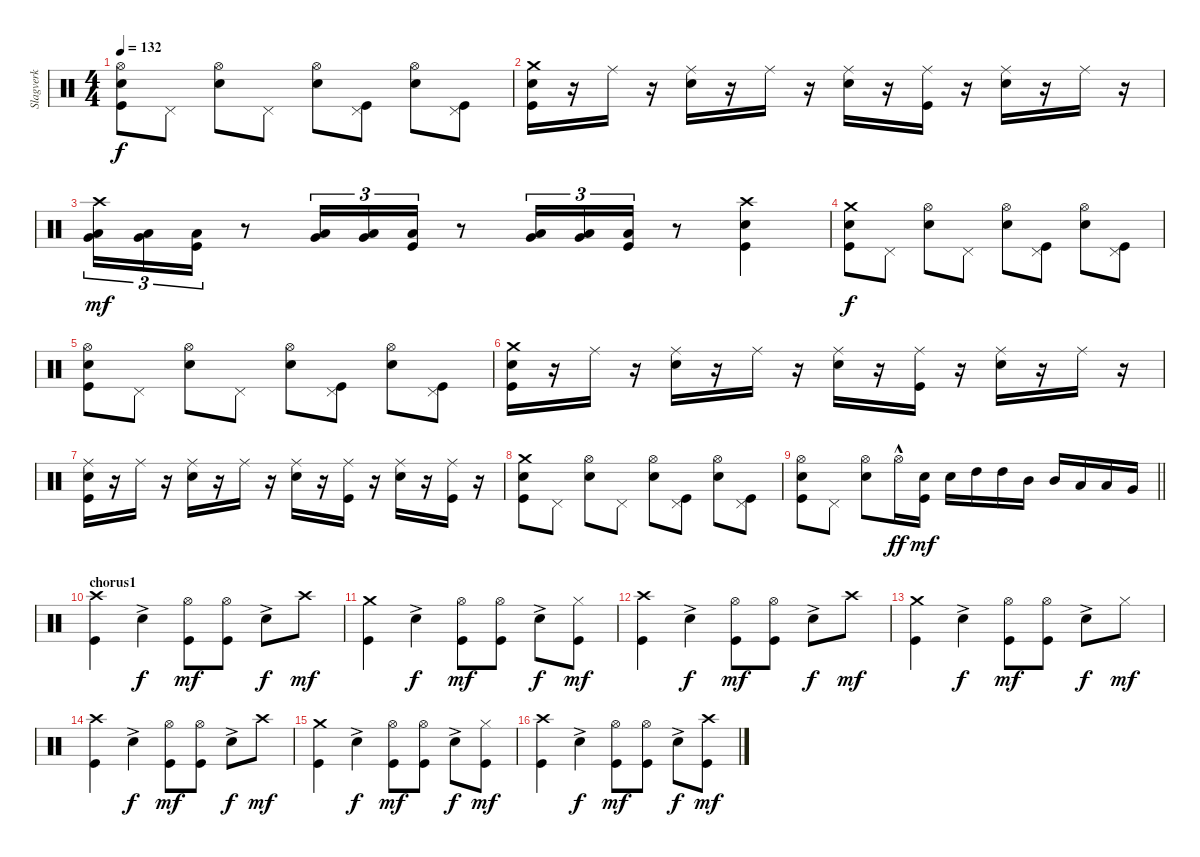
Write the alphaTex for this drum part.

\track ("Slagverk" "Slagverk") {instrument percussion}
\staff
\articulation defaults
\ts (4 4)
\tempo 132
\clef neutral
\ks c
("Hi-Hat (open)" "Snare (hit) 2" "Kick (hit)").8{dy f} "Pedal Hi-Hat (hit)".8 ("Hi-Hat (open)" "Snare (hit) 2").8 "Pedal Hi-Hat (hit)".8 ("Hi-Hat (open)" "Snare (hit) 2").8 ("Pedal Hi-Hat (hit)" "Kick (hit)").8 ("Hi-Hat (open)" "Snare (hit) 2").8 ("Pedal Hi-Hat (hit)" "Kick (hit)").8 |
("Crash medium (hit)" "Snare (hit) 2" "Kick (hit)").16 r.16 "Ride (middle)".16 r.16 ("Ride (middle)" "Snare (hit) 2").16 r.16 "Ride (middle)".16 r.16 ("Ride (middle)" "Snare (hit) 2").16 r.16 ("Ride (middle)" "Kick (hit)").16 r.16 ("Ride (middle)" "Snare (hit) 2").16 r.16 "Ride (middle)".16 r.16 |
("Crash high (hit)" "Low Tom (hit)" "Very Low Tom (hit)").16{tu (3 2) dy mf} ("Very Low Tom (hit)" "Low Floor Tom (hit)").16{tu (3 2)} ("Low Floor Tom (hit)" "Kick (hit)").16{tu (3 2)} r.8 ("Low Tom (hit)" "Very Low Tom (hit)").16{tu (3 2)} ("Very Low Tom (hit)" "Low Floor Tom (hit)").16{tu (3 2)} ("Low Floor Tom (hit)" "Kick (hit)").16{tu (3 2)} r.8 ("Low Tom (hit)" "Very Low Tom (hit)").16{tu (3 2)} ("Very Low Tom (hit)" "Low Floor Tom (hit)").16{tu (3 2)} ("Low Floor Tom (hit)" "Kick (hit)").16{tu (3 2)} r.8 ("Crash high (hit)" "Snare (hit) 2" "Kick (hit)").4 |
("Crash medium (hit)" "Snare (hit) 2" "Kick (hit)").8{dy f} "Pedal Hi-Hat (hit)".8 ("Hi-Hat (open)" "Snare (hit) 2").8 "Pedal Hi-Hat (hit)".8 ("Hi-Hat (open)" "Snare (hit) 2").8 ("Pedal Hi-Hat (hit)" "Kick (hit)").8 ("Hi-Hat (open)" "Snare (hit) 2").8 ("Pedal Hi-Hat (hit)" "Kick (hit)").8 |
("Hi-Hat (open)" "Snare (hit) 2" "Kick (hit)").8 "Pedal Hi-Hat (hit)".8 ("Hi-Hat (open)" "Snare (hit) 2").8 "Pedal Hi-Hat (hit)".8 ("Hi-Hat (open)" "Snare (hit) 2").8 ("Pedal Hi-Hat (hit)" "Kick (hit)").8 ("Hi-Hat (open)" "Snare (hit) 2").8 ("Pedal Hi-Hat (hit)" "Kick (hit)").8 |
("Crash medium (hit)" "Snare (hit) 2" "Kick (hit)").16 r.16 "Ride (middle)".16 r.16 ("Ride (middle)" "Snare (hit) 2").16 r.16 "Ride (middle)".16 r.16 ("Ride (middle)" "Snare (hit) 2").16 r.16 ("Ride (middle)" "Kick (hit)").16 r.16 ("Ride (middle)" "Snare (hit) 2").16 r.16 "Ride (middle)".16 r.16 |
("Ride (middle)" "Snare (hit) 2" "Kick (hit)").16 r.16 "Ride (middle)".16 r.16 ("Ride (middle)" "Snare (hit) 2").16 r.16 "Ride (middle)".16 r.16 ("Ride (middle)" "Snare (hit) 2").16 r.16 ("Ride (middle)" "Kick (hit)").16 r.16 ("Ride (middle)" "Snare (hit) 2").16 r.16 ("Ride (middle)" "Kick (hit)").16 r.16 |
("Crash medium (hit)" "Snare (hit) 2" "Kick (hit)").8 "Pedal Hi-Hat (hit)".8 ("Hi-Hat (open)" "Snare (hit) 2").8 "Pedal Hi-Hat (hit)".8 ("Hi-Hat (open)" "Snare (hit) 2").8 ("Pedal Hi-Hat (hit)" "Kick (hit)").8 ("Hi-Hat (open)" "Snare (hit) 2").8 ("Pedal Hi-Hat (hit)" "Kick (hit)").8 |
\barLineRight lightlight
("Hi-Hat (open)" "Snare (hit) 2" "Kick (hit)").8 "Pedal Hi-Hat (hit)".8 ("Hi-Hat (open)" "Snare (hit) 2").8 "Hi-Hat (open)"{hac}.16{dy ff} ("Snare (hit) 2" "Kick (hit)").16{dy mf} "Snare (hit) 2".16 "High Tom (hit)".16 "High Tom (hit)".16 "Mid Tom (hit)".16 "Mid Tom (hit)".16 "Low Tom (hit)".16 "Low Tom (hit)".16 "Very Low Tom (hit)".16 |
\section ("" "chorus1")
("Crash high (hit)" "Kick (hit)").4 "Snare (hit) 2"{ac}.4{dy f} ("Hi-Hat (open)" "Kick (hit)").8{dy mf} ("Hi-Hat (open)" "Kick (hit)").8 "Snare (hit) 2"{ac}.8{dy f} "Crash high (hit)".8{dy mf} |
("Crash medium (hit)" "Kick (hit)").4 "Snare (hit) 2"{ac}.4{dy f} ("Hi-Hat (open)" "Kick (hit)").8{dy mf} ("Hi-Hat (open)" "Kick (hit)").8 "Snare (hit) 2"{ac}.8{dy f} ("Hi-Hat (closed)" "Kick (hit)").8{dy mf} |
("Crash high (hit)" "Kick (hit)").4 "Snare (hit) 2"{ac}.4{dy f} ("Hi-Hat (open)" "Kick (hit)").8{dy mf} ("Hi-Hat (open)" "Kick (hit)").8 "Snare (hit) 2"{ac}.8{dy f} "Crash high (hit)".8{dy mf} |
("Crash medium (hit)" "Kick (hit)").4 "Snare (hit) 2"{ac}.4{dy f} ("Hi-Hat (open)" "Kick (hit)").8{dy mf} ("Hi-Hat (open)" "Kick (hit)").8 "Snare (hit) 2"{ac}.8{dy f} "Hi-Hat (closed)".8{dy mf} |
("Crash high (hit)" "Kick (hit)").4 "Snare (hit) 2"{ac}.4{dy f} ("Hi-Hat (open)" "Kick (hit)").8{dy mf} ("Hi-Hat (open)" "Kick (hit)").8 "Snare (hit) 2"{ac}.8{dy f} "Crash high (hit)".8{dy mf} |
("Crash medium (hit)" "Kick (hit)").4 "Snare (hit) 2"{ac}.4{dy f} ("Hi-Hat (open)" "Kick (hit)").8{dy mf} ("Hi-Hat (open)" "Kick (hit)").8 "Snare (hit) 2"{ac}.8{dy f} ("Hi-Hat (closed)" "Kick (hit)").8{dy mf} |
("Crash high (hit)" "Kick (hit)").4 "Snare (hit) 2"{ac}.4{dy f} ("Hi-Hat (open)" "Kick (hit)").8{dy mf} ("Hi-Hat (open)" "Kick (hit)").8 "Snare (hit) 2"{ac}.8{dy f} ("Crash high (hit)" "Kick (hit)").8{dy mf}
